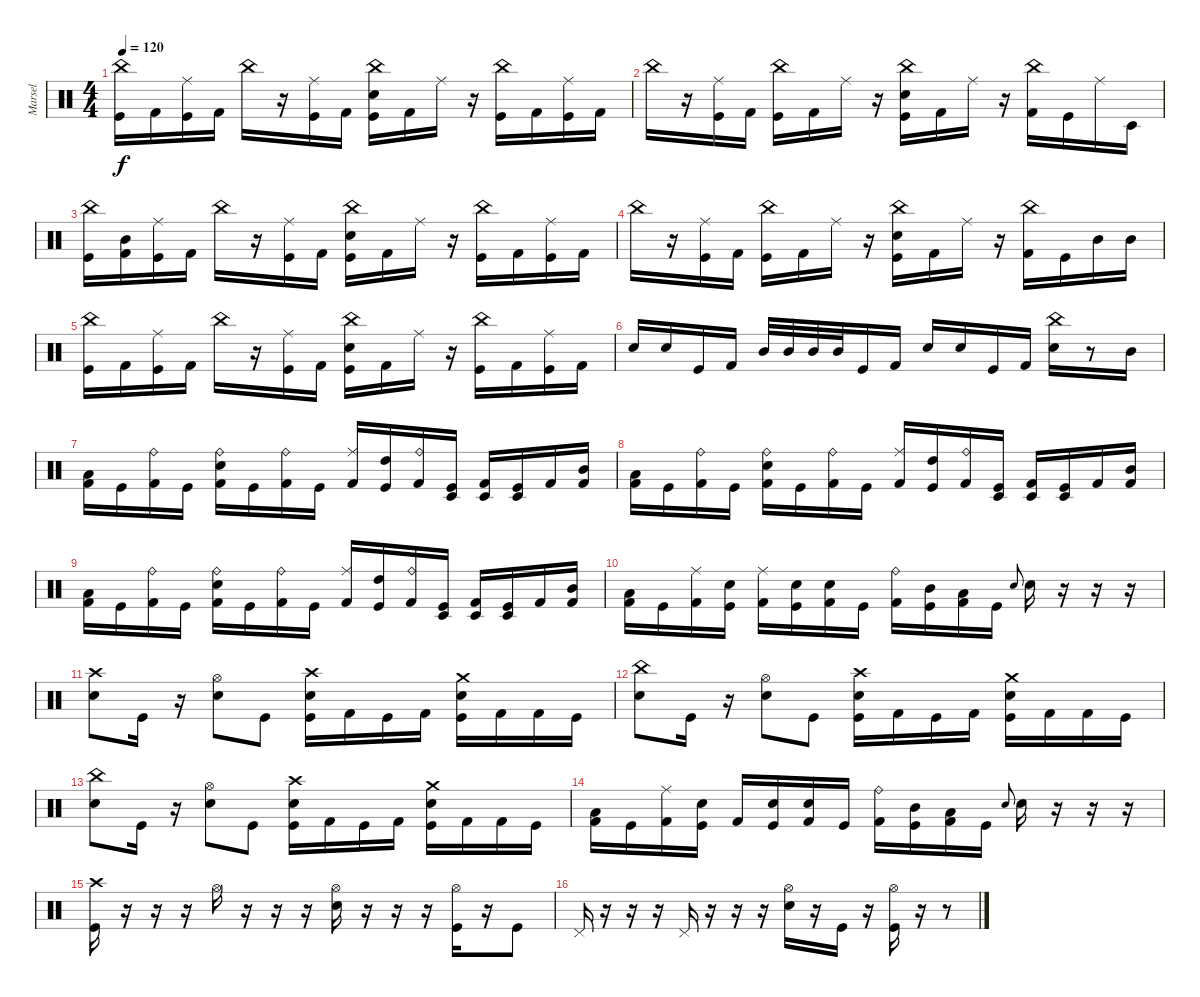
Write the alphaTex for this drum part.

\track ("Marsel" "Marsel") {instrument percussion}
\staff {score}
\articulation defaults
\ts (4 4)
\tempo 120
\clef neutral
\ks c
("China (hit)" "Kick (hit)").16{dy f} "Kick (hit) 2".16 ("Ride (middle)" "Kick (hit)").16 "Kick (hit) 2".16 "China (hit)".16 r.16 ("Ride (middle)" "Kick (hit)").16 "Kick (hit) 2".16 ("China (hit)" "Snare (hit) 2" "Kick (hit)").16 "Kick (hit) 2".16 "Ride (middle)".16 r.16 ("China (hit)" "Kick (hit)").16 "Kick (hit) 2".16 ("Ride (middle)" "Kick (hit)").16 "Kick (hit) 2".16 |
"China (hit)".16 r.16 ("Ride (middle)" "Kick (hit)").16 "Kick (hit) 2".16 ("China (hit)" "Kick (hit)").16 "Kick (hit) 2".16 "Ride (middle)".16 r.16 ("China (hit)" "Snare (hit) 2" "Kick (hit)").16 "Kick (hit) 2".16 "Ride (middle)".16 r.16 ("China (hit)" "Kick (hit) 2").16 "Kick (hit)".16 "Ride (middle)".16 "Timbale low (hit)".16 |
("China (hit)" "Kick (hit)").16 ("Mid Tom (hit)" "Kick (hit) 2").16 ("Ride (middle)" "Kick (hit)").16 "Kick (hit) 2".16 "China (hit)".16 r.16 ("Ride (middle)" "Kick (hit)").16 "Kick (hit) 2".16 ("China (hit)" "Snare (hit) 2" "Kick (hit)").16 "Kick (hit) 2".16 "Ride (middle)".16 r.16 ("China (hit)" "Kick (hit)").16 "Kick (hit) 2".16 ("Ride (middle)" "Kick (hit)").16 "Kick (hit) 2".16 |
"China (hit)".16 r.16 ("Ride (middle)" "Kick (hit)").16 "Kick (hit) 2".16 ("China (hit)" "Kick (hit)").16 "Kick (hit) 2".16 "Ride (middle)".16 r.16 ("China (hit)" "Snare (hit) 2" "Kick (hit)").16 "Kick (hit) 2".16 "Ride (middle)".16 r.16 ("China (hit)" "Kick (hit) 2").16 "Kick (hit)".16 "Mid Tom (hit)".16 "Mid Tom (hit)".16 |
("China (hit)" "Kick (hit)").16 "Kick (hit) 2".16 ("Ride (middle)" "Kick (hit)").16 "Kick (hit) 2".16 "China (hit)".16 r.16 ("Ride (middle)" "Kick (hit)").16 "Kick (hit) 2".16 ("China (hit)" "Snare (hit) 2" "Kick (hit)").16 "Kick (hit) 2".16 "Ride (middle)".16 r.16 ("China (hit)" "Kick (hit)").16 "Kick (hit) 2".16 ("Ride (middle)" "Kick (hit)").16 "Kick (hit) 2".16 |
"Snare (hit) 2".16 "Snare (hit) 2".16 "Kick (hit)".16 "Kick (hit) 2".16 "Mid Tom (hit)".32 "Mid Tom (hit)".32 "Mid Tom (hit)".32 "Mid Tom (hit)".32 "Kick (hit)".16 "Kick (hit) 2".16 "Snare (hit) 2".16 "Snare (hit) 2".16 "Kick (hit)".16 "Kick (hit) 2".16 ("China (hit)" "Snare (hit) 2").16 r.8 "Mid Tom (hit)".16 |
("Low Tom (hit)" "Kick (hit) 2").16 "Kick (hit)".16 ("Ride (bell)" "Kick (hit) 2").16 "Kick (hit)".16 ("Ride (bell)" "Snare (hit) 2" "Kick (hit) 2").16 "Kick (hit)".16 ("Ride (bell)" "Kick (hit) 2").16 "Kick (hit)".16 ("Ride (middle)" "Kick (hit) 2").16 ("High Tom (hit)" "Kick (hit)").16 ("Ride (bell)" "Kick (hit) 2").16 ("Timbale low (hit)" "Kick (hit)").16 ("Timbale low (hit)" "Kick (hit) 2").16 ("Timbale low (hit)" "Kick (hit)").16 "Kick (hit) 2".16 ("Mid Tom (hit)" "Kick (hit) 2").16 |
("Low Tom (hit)" "Kick (hit) 2").16 "Kick (hit)".16 ("Ride (bell)" "Kick (hit) 2").16 "Kick (hit)".16 ("Ride (bell)" "Snare (hit) 2" "Kick (hit) 2").16 "Kick (hit)".16 ("Ride (bell)" "Kick (hit) 2").16 "Kick (hit)".16 ("Ride (middle)" "Kick (hit) 2").16 ("High Tom (hit)" "Kick (hit)").16 ("Ride (bell)" "Kick (hit) 2").16 ("Timbale low (hit)" "Kick (hit)").16 ("Timbale low (hit)" "Kick (hit) 2").16 ("Timbale low (hit)" "Kick (hit)").16 "Kick (hit) 2".16 ("Mid Tom (hit)" "Kick (hit) 2").16 |
("Low Tom (hit)" "Kick (hit) 2").16 "Kick (hit)".16 ("Ride (bell)" "Kick (hit) 2").16 "Kick (hit)".16 ("Ride (bell)" "Snare (hit) 2" "Kick (hit) 2").16 "Kick (hit)".16 ("Ride (bell)" "Kick (hit) 2").16 "Kick (hit)".16 ("Ride (middle)" "Kick (hit) 2").16 ("High Tom (hit)" "Kick (hit)").16 ("Ride (bell)" "Kick (hit) 2").16 ("Timbale low (hit)" "Kick (hit)").16 ("Timbale low (hit)" "Kick (hit) 2").16 ("Timbale low (hit)" "Kick (hit)").16 "Kick (hit) 2".16 ("Mid Tom (hit)" "Kick (hit) 2").16 |
("Low Tom (hit)" "Kick (hit) 2").16 "Kick (hit)".16 ("Ride (middle)" "Kick (hit) 2").16 ("Snare (hit) 2" "Kick (hit)").16 ("Ride (middle)" "Kick (hit) 2").16 ("Snare (hit) 2" "Kick (hit)").16 ("Snare (hit) 2" "Kick (hit) 2").16 "Kick (hit)".16 ("Ride (bell)" "Kick (hit) 2").16 ("Mid Tom (hit)" "Kick (hit)").16 ("Low Tom (hit)" "Kick (hit) 2").16 "Kick (hit)".16 "Snare (hit) 2".8{gr onbeat} "Snare (hit) 2".16 r.16 r.16 r.16 |
("Crash high (hit)" "Snare (hit) 2").8 "Kick (hit)".16 r.16 ("Hi-Hat (open)" "Snare (hit) 2").8 "Kick (hit)".8 ("Crash high (hit)" "Snare (hit) 2" "Kick (hit)").16 "Kick (hit) 2".16 "Kick (hit)".16 "Kick (hit) 2".16 ("Crash medium (hit)" "Snare (hit) 2" "Kick (hit)").16 "Kick (hit) 2".16 "Kick (hit) 2".16 "Kick (hit)".16 |
("China (hit)" "Snare (hit) 2").8 "Kick (hit)".16 r.16 ("Hi-Hat (open)" "Snare (hit) 2").8 "Kick (hit)".8 ("Crash high (hit)" "Snare (hit) 2" "Kick (hit)").16 "Kick (hit) 2".16 "Kick (hit)".16 "Kick (hit) 2".16 ("Crash medium (hit)" "Snare (hit) 2" "Kick (hit)").16 "Kick (hit) 2".16 "Kick (hit) 2".16 "Kick (hit)".16 |
("China (hit)" "Snare (hit) 2").8 "Kick (hit)".16 r.16 ("Hi-Hat (open)" "Snare (hit) 2").8 "Kick (hit)".8 ("Crash high (hit)" "Snare (hit) 2" "Kick (hit)").16 "Kick (hit) 2".16 "Kick (hit)".16 "Kick (hit) 2".16 ("Crash medium (hit)" "Snare (hit) 2" "Kick (hit)").16 "Kick (hit) 2".16 "Kick (hit) 2".16 "Kick (hit)".16 |
("Low Tom (hit)" "Kick (hit) 2").16 "Kick (hit)".16 ("Ride (middle)" "Kick (hit) 2").16 ("Snare (hit) 2" "Kick (hit)").16 "Kick (hit) 2".16 ("Snare (hit) 2" "Kick (hit)").16 ("Snare (hit) 2" "Kick (hit) 2").16 "Kick (hit)".16 ("Ride (bell)" "Kick (hit) 2").16 ("Mid Tom (hit)" "Kick (hit)").16 ("Low Tom (hit)" "Kick (hit) 2").16 "Kick (hit)".16 "Snare (hit) 2".8{gr onbeat} "Snare (hit) 2".16 r.16 r.16 r.16 |
("Crash high (hit)" "Kick (hit)").16 r.16 r.16 r.16 "Hi-Hat (open)".16 r.16 r.16 r.16 ("Hi-Hat (open)" "Snare (hit) 2").16 r.16 r.16 r.16 ("Hi-Hat (open)" "Kick (hit)").16 r.16 "Kick (hit)".8 |
"Pedal Hi-Hat (hit)".16 r.16 r.16 r.16 "Pedal Hi-Hat (hit)".16 r.16 r.16 r.16 ("Hi-Hat (open)" "Snare (hit) 2").16 r.16 "Kick (hit)".16 r.16 ("Hi-Hat (open)" "Kick (hit)").16 r.16 r.8
